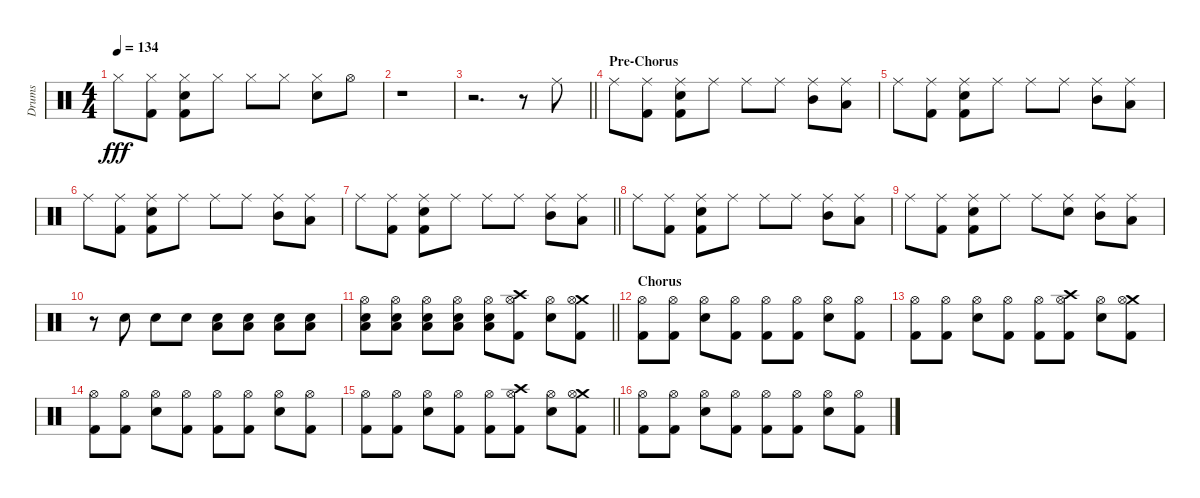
\track ("Drums" "Drums") {instrument percussion}
\staff {score}
\articulation defaults
\ts (4 4)
\tempo 134
\clef neutral
\ks c "Hi-Hat (closed)".8{dy fff}
("Hi-Hat (closed)" "Kick (hit) 2").8 ("Hi-Hat (closed)" "Electric Snare (hit)" "Kick (hit) 2").8 "Hi-Hat (closed)".8 "Hi-Hat (closed)".8 "Hi-Hat (closed)".8 ("Hi-Hat (closed)" "Electric Snare (hit)").8 "Hi-Hat (open)".8 |
r.1 |
\barLineRight lightlight
r.2{d} r.8 "Ride (middle)".8 |
\section ("" "Pre-Chorus")
"Ride (middle)".8 ("Ride (middle)" "Kick (hit) 2").8 ("Ride (middle)" "Electric Snare (hit)" "Kick (hit) 2").8 "Ride (middle)".8 "Ride (middle)".8 "Ride (middle)".8 ("Ride (middle)" "Mid Tom (hit)").8 ("Ride (middle)" "Low Tom (hit)").8 |
"Ride (middle)".8 ("Ride (middle)" "Kick (hit) 2").8 ("Ride (middle)" "Electric Snare (hit)" "Kick (hit) 2").8 "Ride (middle)".8 "Ride (middle)".8 "Ride (middle)".8 ("Ride (middle)" "Mid Tom (hit)").8 ("Ride (middle)" "Low Tom (hit)").8 |
"Ride (middle)".8 ("Ride (middle)" "Kick (hit) 2").8 ("Ride (middle)" "Electric Snare (hit)" "Kick (hit) 2").8 "Ride (middle)".8 "Ride (middle)".8 "Ride (middle)".8 ("Ride (middle)" "Mid Tom (hit)").8 ("Ride (middle)" "Low Tom (hit)").8 |
\barLineRight lightlight "Ride (middle)".8
("Ride (middle)" "Kick (hit) 2").8 ("Ride (middle)" "Electric Snare (hit)" "Kick (hit) 2").8 "Ride (middle)".8 "Ride (middle)".8 "Ride (middle)".8 ("Ride (middle)" "Mid Tom (hit)").8 ("Ride (middle)" "Low Tom (hit)").8 |
"Ride (middle)".8 ("Ride (middle)" "Kick (hit) 2").8 ("Ride (middle)" "Electric Snare (hit)" "Kick (hit) 2").8 "Ride (middle)".8 "Ride (middle)".8 "Ride (middle)".8 ("Ride (middle)" "Mid Tom (hit)").8 ("Ride (middle)" "Low Tom (hit)").8 |
"Ride (middle)".8 ("Ride (middle)" "Kick (hit) 2").8 ("Ride (middle)" "Electric Snare (hit)" "Kick (hit) 2").8 "Ride (middle)".8 "Ride (middle)".8 ("Ride (middle)" "Electric Snare (hit)").8 ("Ride (middle)" "Mid Tom (hit)").8 ("Ride (middle)" "Low Tom (hit)").8 |
r.8 "Electric Snare (hit)".8 "Electric Snare (hit)".8 "Electric Snare (hit)".8 ("Low Tom (hit)" "Electric Snare (hit)").8 ("Low Tom (hit)" "Electric Snare (hit)").8 ("Low Tom (hit)" "Electric Snare (hit)").8 ("Low Tom (hit)" "Electric Snare (hit)").8 |
\barLineRight lightlight
("Hi-Hat (open)" "Low Tom (hit)" "Electric Snare (hit)").8 ("Hi-Hat (open)" "Low Tom (hit)" "Electric Snare (hit)").8 ("Hi-Hat (open)" "Low Tom (hit)" "Electric Snare (hit)").8 ("Hi-Hat (open)" "Low Tom (hit)" "Electric Snare (hit)").8 ("Hi-Hat (open)" "Low Tom (hit)" "Electric Snare (hit)").8 ("Crash high (hit)" "Hi-Hat (open)" "Kick (hit) 2").8 ("Hi-Hat (open)" "Electric Snare (hit)").8 ("Crash medium (hit)" "Hi-Hat (open)" "Kick (hit) 2").8 |
\section ("" "Chorus")
("Hi-Hat (open)" "Kick (hit) 2").8 ("Hi-Hat (open)" "Kick (hit) 2").8 ("Hi-Hat (open)" "Electric Snare (hit)").8 ("Hi-Hat (open)" "Kick (hit) 2").8 ("Hi-Hat (open)" "Kick (hit) 2").8 ("Hi-Hat (open)" "Kick (hit) 2").8 ("Hi-Hat (open)" "Electric Snare (hit)").8 ("Hi-Hat (open)" "Kick (hit) 2").8 |
("Hi-Hat (open)" "Kick (hit) 2").8 ("Hi-Hat (open)" "Kick (hit) 2").8 ("Hi-Hat (open)" "Electric Snare (hit)").8 ("Hi-Hat (open)" "Kick (hit) 2").8 ("Hi-Hat (open)" "Kick (hit) 2").8 ("Crash high (hit)" "Hi-Hat (open)" "Kick (hit) 2").8 ("Hi-Hat (open)" "Electric Snare (hit)").8 ("Crash medium (hit)" "Hi-Hat (open)" "Kick (hit) 2").8 |
("Hi-Hat (open)" "Kick (hit) 2").8 ("Hi-Hat (open)" "Kick (hit) 2").8 ("Hi-Hat (open)" "Electric Snare (hit)").8 ("Hi-Hat (open)" "Kick (hit) 2").8 ("Hi-Hat (open)" "Kick (hit) 2").8 ("Hi-Hat (open)" "Kick (hit) 2").8 ("Hi-Hat (open)" "Electric Snare (hit)").8 ("Hi-Hat (open)" "Kick (hit) 2").8 |
\barLineRight lightlight
("Hi-Hat (open)" "Kick (hit) 2").8 ("Hi-Hat (open)" "Kick (hit) 2").8 ("Hi-Hat (open)" "Electric Snare (hit)").8 ("Hi-Hat (open)" "Kick (hit) 2").8 ("Hi-Hat (open)" "Kick (hit) 2").8 ("Crash high (hit)" "Hi-Hat (open)" "Kick (hit) 2").8 ("Hi-Hat (open)" "Electric Snare (hit)").8 ("Crash medium (hit)" "Hi-Hat (open)" "Kick (hit) 2").8 |
("Hi-Hat (open)" "Kick (hit) 2").8 ("Hi-Hat (open)" "Kick (hit) 2").8 ("Hi-Hat (open)" "Electric Snare (hit)").8 ("Hi-Hat (open)" "Kick (hit) 2").8 ("Hi-Hat (open)" "Kick (hit) 2").8 ("Hi-Hat (open)" "Kick (hit) 2").8 ("Hi-Hat (open)" "Electric Snare (hit)").8 ("Hi-Hat (open)" "Kick (hit) 2").8
